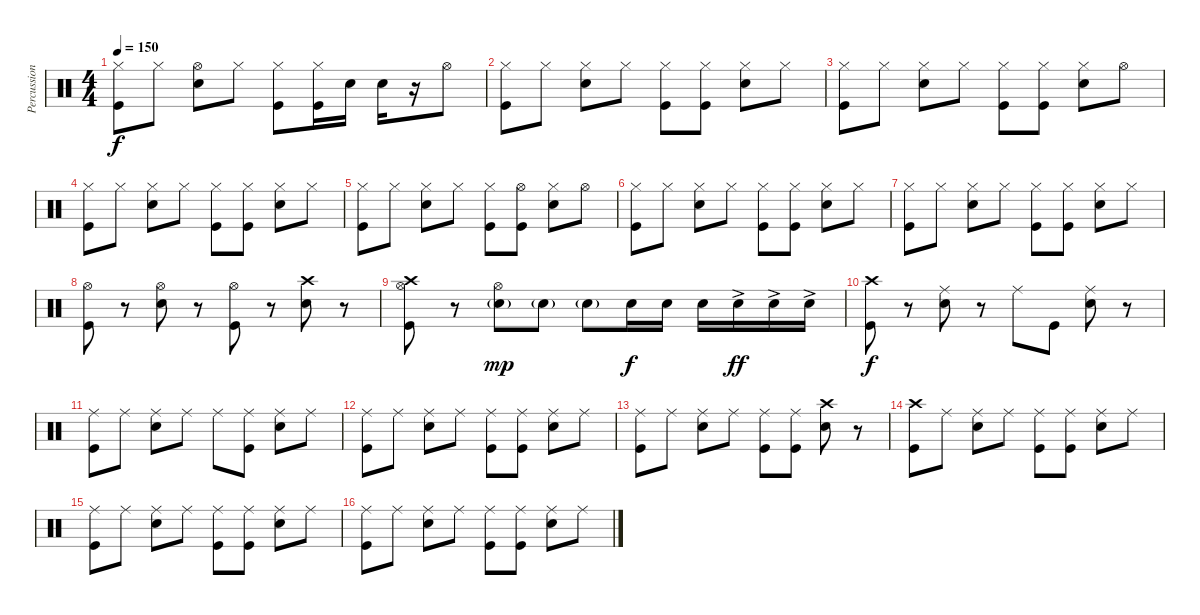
\track ("Percussion" "Percussion") {instrument percussion}
\staff {score}
\articulation defaults
\ts (4 4)
\tempo 150
\clef neutral
\ks c
("Hi-Hat (closed)" "Kick (hit)").8{dy f} "Hi-Hat (closed)".8 ("Hi-Hat (open)" "Snare (hit) 2").8 "Hi-Hat (closed)".8 ("Hi-Hat (closed)" "Kick (hit)").8 ("Hi-Hat (closed)" "Kick (hit)").16 "Snare (hit) 2".16 "Snare (hit) 2".16 r.16 "Hi-Hat (open)".8 |
("Hi-Hat (closed)" "Kick (hit)").8 "Hi-Hat (closed)".8 ("Hi-Hat (closed)" "Snare (hit) 2").8 "Hi-Hat (closed)".8 ("Hi-Hat (closed)" "Kick (hit)").8 ("Hi-Hat (closed)" "Kick (hit)").8 ("Hi-Hat (closed)" "Snare (hit) 2").8 "Hi-Hat (closed)".8 |
("Hi-Hat (closed)" "Kick (hit)").8 "Hi-Hat (closed)".8 ("Hi-Hat (closed)" "Snare (hit) 2").8 "Hi-Hat (closed)".8 ("Hi-Hat (closed)" "Kick (hit)").8 ("Hi-Hat (closed)" "Kick (hit)").8 ("Hi-Hat (closed)" "Snare (hit) 2").8 "Hi-Hat (open)".8 |
("Hi-Hat (closed)" "Kick (hit)").8 "Hi-Hat (closed)".8 ("Hi-Hat (closed)" "Snare (hit) 2").8 "Hi-Hat (closed)".8 ("Hi-Hat (closed)" "Kick (hit)").8 ("Hi-Hat (closed)" "Kick (hit)").8 ("Hi-Hat (closed)" "Snare (hit) 2").8 "Hi-Hat (closed)".8 |
("Hi-Hat (closed)" "Kick (hit)").8 "Hi-Hat (closed)".8 ("Hi-Hat (closed)" "Snare (hit) 2").8 "Hi-Hat (closed)".8 ("Hi-Hat (closed)" "Kick (hit)").8 ("Hi-Hat (open)" "Kick (hit)").8 ("Hi-Hat (closed)" "Snare (hit) 2").8 "Hi-Hat (open)".8 |
("Hi-Hat (closed)" "Kick (hit)").8 "Hi-Hat (closed)".8 ("Hi-Hat (closed)" "Snare (hit) 2").8 "Hi-Hat (closed)".8 ("Hi-Hat (closed)" "Kick (hit)").8 ("Hi-Hat (closed)" "Kick (hit)").8 ("Hi-Hat (closed)" "Snare (hit) 2").8 "Hi-Hat (closed)".8 |
("Hi-Hat (closed)" "Kick (hit)").8 "Hi-Hat (closed)".8 ("Hi-Hat (closed)" "Snare (hit) 2").8 "Hi-Hat (closed)".8 ("Hi-Hat (closed)" "Kick (hit)").8 ("Hi-Hat (closed)" "Kick (hit)").8 ("Hi-Hat (closed)" "Snare (hit) 2").8 "Hi-Hat (closed)".8 |
("Hi-Hat (open)" "Kick (hit)").8 r.8 ("Hi-Hat (open)" "Snare (hit) 2").8 r.8 ("Hi-Hat (open)" "Kick (hit)").8 r.8 ("Crash high (hit)" "Snare (hit) 2").8 r.8 |
("Crash high (hit)" "Hi-Hat (open)" "Kick (hit)").8 r.8 ("Hi-Hat (open)" "Snare (hit) 2"{g}).8{dy mp} "Snare (hit) 2"{g}.8 "Snare (hit) 2"{g}.8 "Snare (hit) 2".16{dy f} "Snare (hit) 2".16 "Snare (hit) 2".16 "Snare (hit) 2"{ac}.16{dy ff} "Snare (hit) 2"{ac}.16 "Snare (hit) 2"{ac}.16 |
("Crash high (hit)" "Kick (hit)").8{dy f} r.8 ("Ride (middle)" "Snare (hit) 2").8 r.8 "Ride (middle)".8 "Kick (hit)".8 ("Ride (middle)" "Snare (hit) 2").8 r.8 |
("Ride (middle)" "Kick (hit)").8 "Ride (middle)".8 ("Ride (middle)" "Snare (hit) 2").8 "Ride (middle)".8 "Ride (middle)".8 ("Ride (middle)" "Kick (hit)").8 ("Ride (middle)" "Snare (hit) 2").8 "Ride (middle)".8 |
("Ride (middle)" "Kick (hit)").8 "Ride (middle)".8 ("Ride (middle)" "Snare (hit) 2").8 "Ride (middle)".8 ("Ride (middle)" "Kick (hit)").8 ("Ride (middle)" "Kick (hit)").8 ("Ride (middle)" "Snare (hit) 2").8 "Ride (middle)".8 |
("Ride (middle)" "Kick (hit)").8 "Ride (middle)".8 ("Ride (middle)" "Snare (hit) 2").8 "Ride (middle)".8 ("Ride (middle)" "Kick (hit)").8 ("Ride (middle)" "Kick (hit)").8 ("Crash high (hit)" "Snare (hit) 2").8 r.8 |
("Crash high (hit)" "Kick (hit)").8 "Ride (middle)".8 ("Ride (middle)" "Snare (hit) 2").8 "Ride (middle)".8 ("Ride (middle)" "Kick (hit)").8 ("Ride (middle)" "Kick (hit)").8 ("Ride (middle)" "Snare (hit) 2").8 "Ride (middle)".8 |
("Ride (middle)" "Kick (hit)").8 "Ride (middle)".8 ("Ride (middle)" "Snare (hit) 2").8 "Ride (middle)".8 ("Ride (middle)" "Kick (hit)").8 ("Ride (middle)" "Kick (hit)").8 ("Ride (middle)" "Snare (hit) 2").8 "Ride (middle)".8 |
("Ride (middle)" "Kick (hit)").8 "Ride (middle)".8 ("Ride (middle)" "Snare (hit) 2").8 "Ride (middle)".8 ("Ride (middle)" "Kick (hit)").8 ("Ride (middle)" "Kick (hit)").8 ("Ride (middle)" "Snare (hit) 2").8 "Ride (middle)".8
